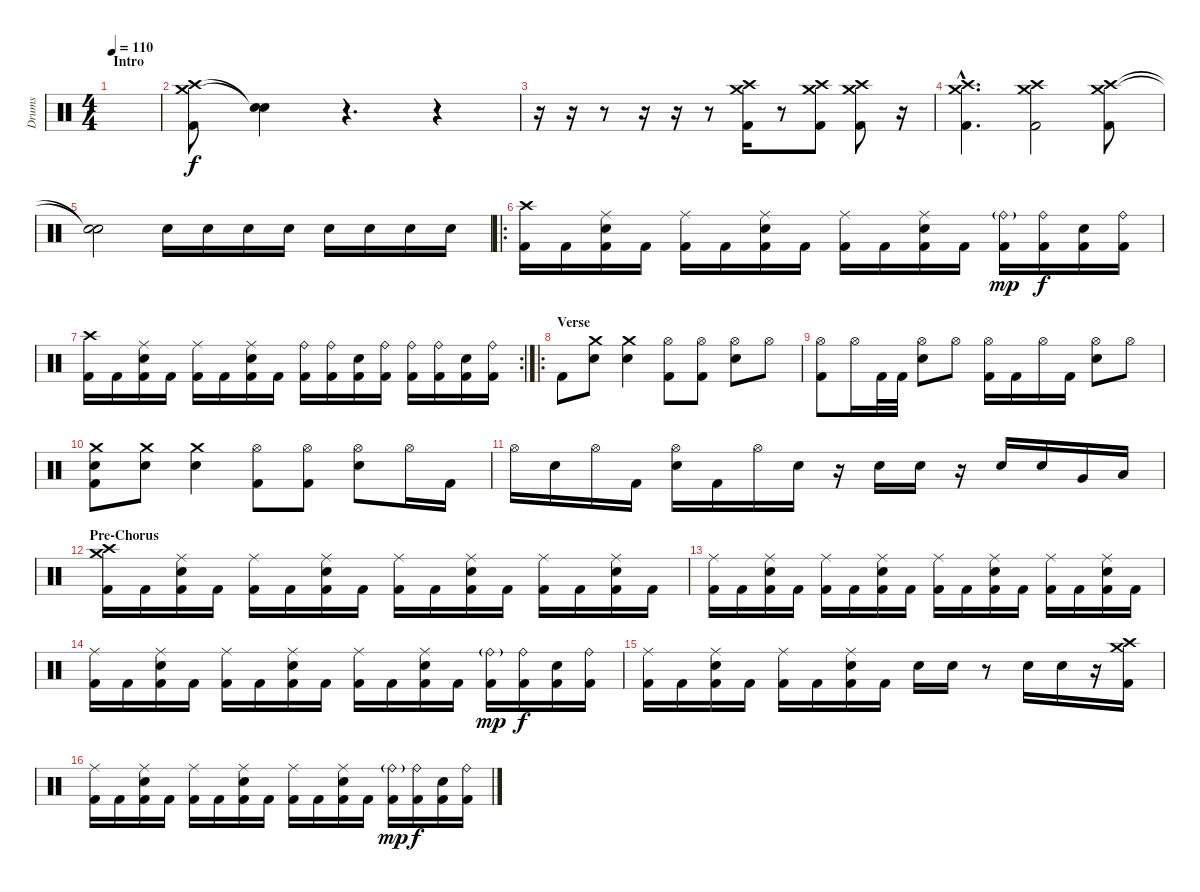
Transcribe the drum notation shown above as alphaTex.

\track ("Drums" "Drums") {instrument percussion}
\staff {score}
\articulation defaults
\ts (4 4)
\section ("" "Intro")
\tempo 110
\clef neutral
\ks c
|
("Crash high (hit)" "Crash medium (hit)" "Kick (hit) 2").8 ("Snare (hit)"{t} "Snare (hit)"{t}).4 r.4{d} r.4 |
r.16 r.16 r.8 r.16 r.16 r.8 ("Crash high (hit)" "Crash medium (hit)" "Kick (hit) 2").16 r.8 ("Crash high (hit)" "Crash medium (hit)" "Kick (hit) 2").8 ("Crash high (hit)" "Crash medium (hit)" "Kick (hit) 2").8 r.16 |
("Crash high (hit)"{hac} "Crash medium (hit)"{hac} "Kick (hit) 2"{hac}).4{d} ("Crash high (hit)" "Crash medium (hit)" "Kick (hit) 2").2 ("Crash high (hit)" "Crash medium (hit)" "Kick (hit) 2").8 |
("Snare (hit)"{t} "Snare (hit)"{t}).2 "Snare (hit) 2".16 "Snare (hit) 2".16 "Snare (hit) 2".16 "Snare (hit) 2".16 "Snare (hit) 2".16 "Snare (hit) 2".16 "Snare (hit) 2".16 "Snare (hit) 2".16 |
\ro
("Crash high (hit)" "Kick (hit) 2").16 "Kick (hit) 2".16 ("Ride (middle)" "Snare (hit) 2" "Kick (hit) 2").16 "Kick (hit) 2".16 ("Ride (middle)" "Kick (hit) 2").16 "Kick (hit) 2".16 ("Ride (middle)" "Snare (hit) 2" "Kick (hit) 2").16 "Kick (hit) 2".16 ("Ride (middle)" "Kick (hit) 2").16 "Kick (hit) 2".16 ("Ride (middle)" "Snare (hit) 2" "Kick (hit) 2").16 "Kick (hit) 2".16 ("Ride (bell)"{g} "Kick (hit) 2").16{dy mp} ("Ride (bell)" "Kick (hit) 2").16{dy f} ("Snare (hit) 2" "Kick (hit) 2").16 ("Ride (bell)" "Kick (hit) 2").16 |
\rc 2
("Crash high (hit)" "Kick (hit) 2").16 "Kick (hit) 2".16 ("Ride (middle)" "Snare (hit) 2" "Kick (hit) 2").16 "Kick (hit) 2".16 ("Ride (middle)" "Kick (hit) 2").16 "Kick (hit) 2".16 ("Ride (middle)" "Snare (hit) 2" "Kick (hit) 2").16 "Kick (hit) 2".16 ("Ride (bell)" "Kick (hit) 2").16 ("Ride (bell)" "Kick (hit) 2").16 ("Snare (hit) 2" "Kick (hit) 2").16 ("Ride (bell)" "Kick (hit) 2").16 ("Ride (bell)" "Kick (hit) 2").16 ("Ride (bell)" "Kick (hit) 2").16 ("Snare (hit) 2" "Kick (hit) 2").16 ("Ride (bell)" "Kick (hit) 2").16 |
\ro
\section ("" "Verse")
"Kick (hit) 2".8 ("Crash medium (hit)" "Snare (hit) 2").8 ("Crash medium (hit)" "Snare (hit) 2").4 ("Hi-Hat (open)" "Kick (hit) 2").8 ("Hi-Hat (open)" "Kick (hit) 2").8 ("Hi-Hat (open)" "Snare (hit) 2").8 "Hi-Hat (open)".8 |
("Hi-Hat (open)" "Kick (hit) 2").8 "Hi-Hat (open)".16 "Kick (hit) 2".32 "Kick (hit) 2".32 ("Hi-Hat (open)" "Snare (hit) 2").8 "Hi-Hat (open)".8 ("Hi-Hat (open)" "Kick (hit) 2").16 "Kick (hit) 2".16 "Hi-Hat (open)".16 "Kick (hit) 2".16 ("Hi-Hat (open)" "Snare (hit) 2").8 "Hi-Hat (open)".8 |
("Crash medium (hit)" "Snare (hit) 2" "Kick (hit) 2").8 ("Crash medium (hit)" "Snare (hit) 2").8 ("Crash medium (hit)" "Snare (hit) 2").4 ("Hi-Hat (open)" "Kick (hit) 2").8 ("Hi-Hat (open)" "Kick (hit) 2").8 ("Hi-Hat (open)" "Snare (hit) 2").8 "Hi-Hat (open)".16 "Kick (hit) 2".16 |
"Hi-Hat (open)".16 "Snare (hit) 2".16 "Hi-Hat (open)".16 "Kick (hit) 2".16 ("Hi-Hat (open)" "Snare (hit) 2").16 "Kick (hit) 2".16 "Hi-Hat (open)".16 "Snare (hit) 2".16 r.16 "Snare (hit) 2".16 "Snare (hit) 2".16 r.16 "Snare (hit) 2".16 "Snare (hit) 2".16 "Very Low Tom (hit)".16 "Low Floor Tom (hit)".16 |
\section ("" "Pre-Chorus")
("Crash medium (hit)" "Crash high (hit)" "Kick (hit) 2").16 "Kick (hit) 2".16 ("Ride (middle)" "Snare (hit) 2" "Kick (hit) 2").16 "Kick (hit) 2".16 ("Ride (middle)" "Kick (hit) 2").16 "Kick (hit) 2".16 ("Ride (middle)" "Snare (hit) 2" "Kick (hit) 2").16 "Kick (hit) 2".16 ("Ride (middle)" "Kick (hit) 2").16 "Kick (hit) 2".16 ("Ride (middle)" "Snare (hit) 2" "Kick (hit) 2").16 "Kick (hit) 2".16 ("Ride (middle)" "Kick (hit) 2").16 "Kick (hit) 2".16 ("Ride (middle)" "Snare (hit) 2" "Kick (hit) 2").16 "Kick (hit) 2".16 |
("Ride (middle)" "Kick (hit) 2").16 "Kick (hit) 2".16 ("Ride (middle)" "Snare (hit) 2" "Kick (hit) 2").16 "Kick (hit) 2".16 ("Ride (middle)" "Kick (hit) 2").16 "Kick (hit) 2".16 ("Ride (middle)" "Snare (hit) 2" "Kick (hit) 2").16 "Kick (hit) 2".16 ("Ride (middle)" "Kick (hit) 2").16 "Kick (hit) 2".16 ("Ride (middle)" "Snare (hit) 2" "Kick (hit) 2").16 "Kick (hit) 2".16 ("Ride (middle)" "Kick (hit) 2").16 "Kick (hit) 2".16 ("Ride (middle)" "Snare (hit) 2" "Kick (hit) 2").16 "Kick (hit) 2".16 |
("Ride (middle)" "Kick (hit) 2").16 "Kick (hit) 2".16 ("Ride (middle)" "Snare (hit) 2" "Kick (hit) 2").16 "Kick (hit) 2".16 ("Ride (middle)" "Kick (hit) 2").16 "Kick (hit) 2".16 ("Ride (middle)" "Snare (hit) 2" "Kick (hit) 2").16 "Kick (hit) 2".16 ("Ride (middle)" "Kick (hit) 2").16 "Kick (hit) 2".16 ("Ride (middle)" "Snare (hit) 2" "Kick (hit) 2").16 "Kick (hit) 2".16 ("Ride (bell)"{g} "Kick (hit) 2").16{dy mp} ("Ride (bell)" "Kick (hit) 2").16{dy f} ("Snare (hit) 2" "Kick (hit) 2").16 ("Ride (bell)" "Kick (hit) 2").16 |
("Ride (middle)" "Kick (hit) 2").16 "Kick (hit) 2".16 ("Ride (middle)" "Snare (hit) 2" "Kick (hit) 2").16 "Kick (hit) 2".16 ("Ride (middle)" "Kick (hit) 2").16 "Kick (hit) 2".16 ("Ride (middle)" "Snare (hit) 2" "Kick (hit) 2").16 "Kick (hit) 2".16 "Snare (hit) 2".16 "Snare (hit) 2".16 r.8 "Snare (hit) 2".16 "Snare (hit) 2".16 r.16 ("Crash high (hit)" "Crash medium (hit)" "Kick (hit) 2").16 |
("Ride (middle)" "Kick (hit) 2").16 "Kick (hit) 2".16 ("Ride (middle)" "Snare (hit) 2" "Kick (hit) 2").16 "Kick (hit) 2".16 ("Ride (middle)" "Kick (hit) 2").16 "Kick (hit) 2".16 ("Ride (middle)" "Snare (hit) 2" "Kick (hit) 2").16 "Kick (hit) 2".16 ("Ride (middle)" "Kick (hit) 2").16 "Kick (hit) 2".16 ("Ride (middle)" "Snare (hit) 2" "Kick (hit) 2").16 "Kick (hit) 2".16 ("Ride (bell)"{g} "Kick (hit) 2").16{dy mp} ("Ride (bell)" "Kick (hit) 2").16{dy f} ("Snare (hit) 2" "Kick (hit) 2").16 ("Ride (bell)" "Kick (hit) 2").16
